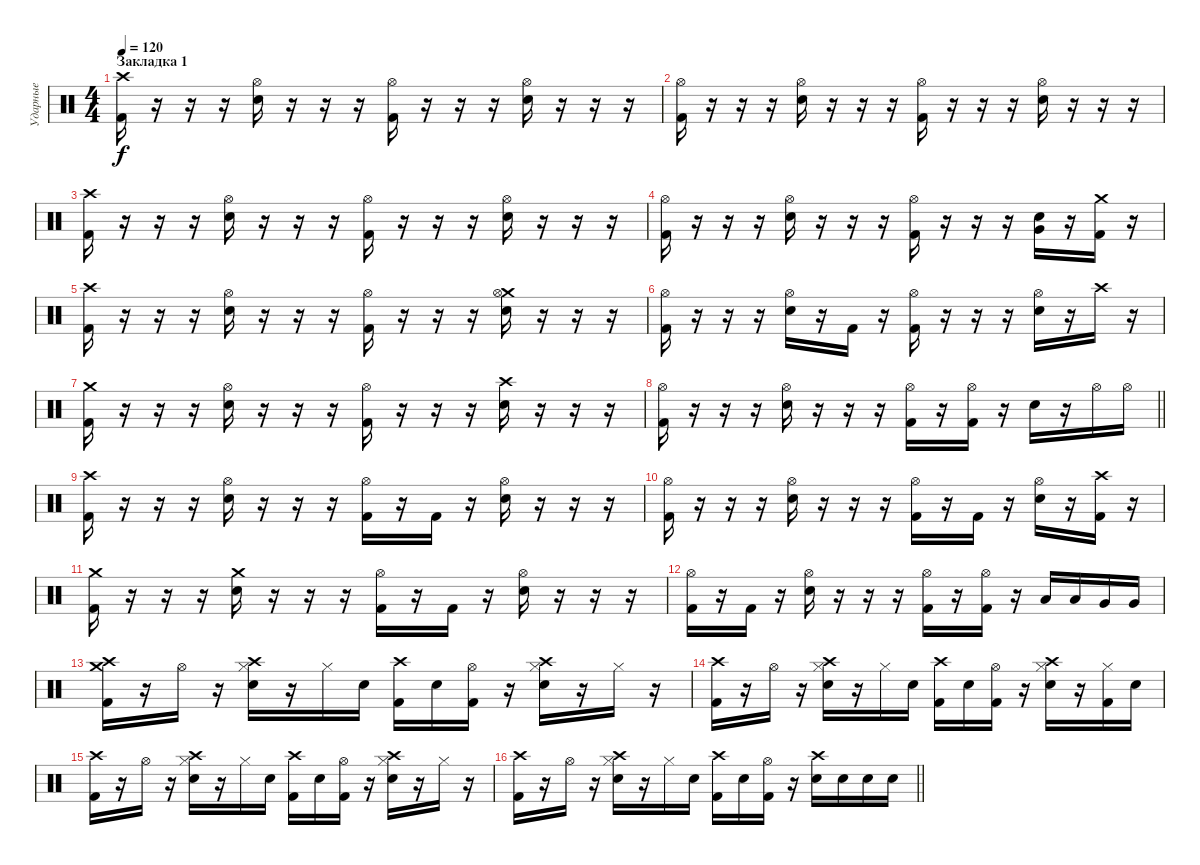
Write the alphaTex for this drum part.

\track ("Ударные" "Ударные") {instrument percussion}
\staff {score}
\articulation defaults
\ts (4 4)
\section ("" "Закладка 1")
\tempo 120
\clef neutral
\ks c
("Crash high (hit)" "Kick (hit) 2").16{dy f} r.16 r.16 r.16 ("Hi-Hat (open)" "Electric Snare (hit)").16 r.16 r.16 r.16 ("Hi-Hat (open)" "Kick (hit) 2").16 r.16 r.16 r.16 ("Hi-Hat (open)" "Electric Snare (hit)").16 r.16 r.16 r.16 |
("Hi-Hat (open)" "Kick (hit) 2").16 r.16 r.16 r.16 ("Hi-Hat (open)" "Electric Snare (hit)").16 r.16 r.16 r.16 ("Hi-Hat (open)" "Kick (hit) 2").16 r.16 r.16 r.16 ("Hi-Hat (open)" "Electric Snare (hit)").16 r.16 r.16 r.16 |
("Crash high (hit)" "Kick (hit) 2").16 r.16 r.16 r.16 ("Hi-Hat (open)" "Electric Snare (hit)").16 r.16 r.16 r.16 ("Hi-Hat (open)" "Kick (hit) 2").16 r.16 r.16 r.16 ("Hi-Hat (open)" "Electric Snare (hit)").16 r.16 r.16 r.16 |
("Hi-Hat (open)" "Kick (hit) 2").16 r.16 r.16 r.16 ("Hi-Hat (open)" "Electric Snare (hit)").16 r.16 r.16 r.16 ("Hi-Hat (open)" "Kick (hit) 2").16 r.16 r.16 r.16 ("Very Low Tom (hit)" "Electric Snare (hit)").16 r.16 ("Crash medium (hit)" "Kick (hit) 2").16 r.16 |
("Crash high (hit)" "Kick (hit) 2").16 r.16 r.16 r.16 ("Hi-Hat (open)" "Electric Snare (hit)").16 r.16 r.16 r.16 ("Hi-Hat (open)" "Kick (hit) 2").16 r.16 r.16 r.16 ("Crash medium (hit)" "Hi-Hat (open)" "Electric Snare (hit)").16 r.16 r.16 r.16 |
("Hi-Hat (open)" "Kick (hit) 2").16 r.16 r.16 r.16 ("Hi-Hat (open)" "Electric Snare (hit)").16 r.16 "Kick (hit) 2".16 r.16 ("Hi-Hat (open)" "Kick (hit) 2").16 r.16 r.16 r.16 ("Hi-Hat (open)" "Electric Snare (hit)").16 r.16 "Crash high (hit)".16 r.16 |
("Crash medium (hit)" "Kick (hit) 2").16 r.16 r.16 r.16 ("Hi-Hat (open)" "Electric Snare (hit)").16 r.16 r.16 r.16 ("Hi-Hat (open)" "Kick (hit) 2").16 r.16 r.16 r.16 ("Crash high (hit)" "Electric Snare (hit)").16 r.16 r.16 r.16 |
\barLineRight lightlight
("Hi-Hat (open)" "Kick (hit) 2").16 r.16 r.16 r.16 ("Hi-Hat (open)" "Electric Snare (hit)").16 r.16 r.16 r.16 ("Hi-Hat (open)" "Kick (hit) 2").16 r.16 ("Hi-Hat (open)" "Kick (hit) 2").16 r.16 "Electric Snare (hit)".16 r.16 "Hi-Hat (open)".16 "Hi-Hat (open)".16 |
("Crash high (hit)" "Kick (hit) 2").16 r.16 r.16 r.16 ("Hi-Hat (open)" "Electric Snare (hit)").16 r.16 r.16 r.16 ("Hi-Hat (open)" "Kick (hit) 2").16 r.16 "Kick (hit) 2".16 r.16 ("Hi-Hat (open)" "Electric Snare (hit)").16 r.16 r.16 r.16 |
("Hi-Hat (open)" "Kick (hit) 2").16 r.16 r.16 r.16 ("Hi-Hat (open)" "Electric Snare (hit)").16 r.16 r.16 r.16 ("Hi-Hat (open)" "Kick (hit) 2").16 r.16 "Kick (hit) 2".16 r.16 ("Hi-Hat (open)" "Electric Snare (hit)").16 r.16 ("Crash high (hit)" "Kick (hit) 2").16 r.16 |
("Crash medium (hit)" "Kick (hit) 2").16 r.16 r.16 r.16 ("Crash medium (hit)" "Electric Snare (hit)").16 r.16 r.16 r.16 ("Hi-Hat (open)" "Kick (hit) 2").16 r.16 "Kick (hit) 2".16 r.16 ("Hi-Hat (open)" "Electric Snare (hit)").16 r.16 r.16 r.16 |
("Hi-Hat (open)" "Kick (hit) 2").16 r.16 "Kick (hit) 2".16 r.16 ("Hi-Hat (open)" "Electric Snare (hit)").16 r.16 r.16 r.16 ("Hi-Hat (open)" "Kick (hit) 2").16 r.16 ("Hi-Hat (open)" "Kick (hit) 2").16 r.16 "Low Tom (hit)".16 "Low Tom (hit)".16 "Very Low Tom (hit)".16 "Very Low Tom (hit)".16 |
("Crash medium (hit)" "Crash high (hit)" "Kick (hit) 2").16 r.16 "Hi-Hat (open)".16 r.16 ("Crash high (hit)" "Hi-Hat (closed)" "Electric Snare (hit)").16 r.16 "Hi-Hat (closed)".16 "Electric Snare (hit)".16 ("Crash high (hit)" "Kick (hit) 2").16 "Electric Snare (hit)".16 ("Hi-Hat (open)" "Kick (hit) 2").16 r.16 ("Crash high (hit)" "Hi-Hat (closed)" "Electric Snare (hit)").16 r.16 "Hi-Hat (closed)".16 r.16 |
("Crash high (hit)" "Kick (hit) 2").16 r.16 "Hi-Hat (open)".16 r.16 ("Crash high (hit)" "Hi-Hat (closed)" "Electric Snare (hit)").16 r.16 "Hi-Hat (closed)".16 "Electric Snare (hit)".16 ("Crash high (hit)" "Kick (hit) 2").16 "Electric Snare (hit)".16 ("Hi-Hat (open)" "Kick (hit) 2").16 r.16 ("Crash high (hit)" "Hi-Hat (closed)" "Electric Snare (hit)").16 r.16 ("Hi-Hat (closed)" "Kick (hit) 2").16 "Electric Snare (hit)".16 |
("Crash high (hit)" "Kick (hit) 2").16 r.16 "Hi-Hat (open)".16 r.16 ("Crash high (hit)" "Hi-Hat (closed)" "Electric Snare (hit)").16 r.16 "Hi-Hat (closed)".16 "Electric Snare (hit)".16 ("Crash high (hit)" "Kick (hit) 2").16 "Electric Snare (hit)".16 ("Hi-Hat (open)" "Kick (hit) 2").16 r.16 ("Crash high (hit)" "Hi-Hat (closed)" "Electric Snare (hit)").16 r.16 "Hi-Hat (closed)".16 r.16 |
\barLineRight lightlight
("Crash high (hit)" "Kick (hit) 2").16 r.16 "Hi-Hat (open)".16 r.16 ("Crash high (hit)" "Hi-Hat (closed)" "Electric Snare (hit)").16 r.16 "Hi-Hat (closed)".16 "Electric Snare (hit)".16 ("Crash high (hit)" "Kick (hit) 2").16 "Electric Snare (hit)".16 ("Hi-Hat (open)" "Kick (hit) 2").16 r.16 ("Crash high (hit)" "Electric Snare (hit)").16 "Electric Snare (hit)".16 "Electric Snare (hit)".16 "Electric Snare (hit)".16
